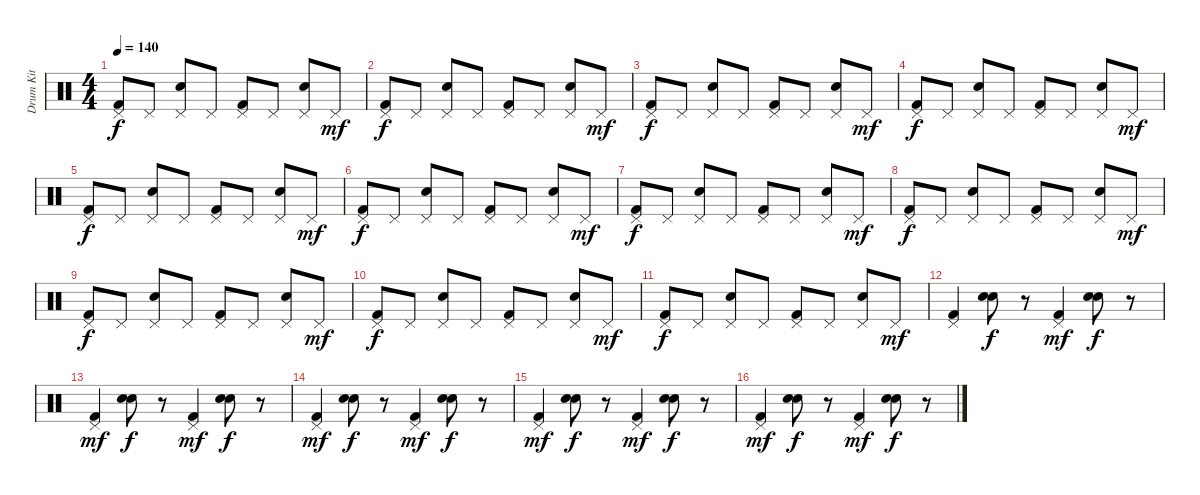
\track ("Drum Kit" "Drum Kit") {instrument percussion}
\staff {score}
\articulation defaults
\ts (4 4)
\tempo 140
\clef neutral
\ks c
("Pedal Hi-Hat (hit)" "Kick (hit) 2").8{dy f} "Pedal Hi-Hat (hit)".8 ("Pedal Hi-Hat (hit)" "Electric Snare (hit)").8 "Pedal Hi-Hat (hit)".8 ("Pedal Hi-Hat (hit)" "Kick (hit) 2").8 "Pedal Hi-Hat (hit)".8 ("Pedal Hi-Hat (hit)" "Electric Snare (hit)").8 "Pedal Hi-Hat (hit)".8{dy mf} |
("Pedal Hi-Hat (hit)" "Kick (hit) 2").8{dy f} "Pedal Hi-Hat (hit)".8 ("Pedal Hi-Hat (hit)" "Electric Snare (hit)").8 "Pedal Hi-Hat (hit)".8 ("Pedal Hi-Hat (hit)" "Kick (hit) 2").8 "Pedal Hi-Hat (hit)".8 ("Pedal Hi-Hat (hit)" "Electric Snare (hit)").8 "Pedal Hi-Hat (hit)".8{dy mf} |
("Pedal Hi-Hat (hit)" "Kick (hit) 2").8{dy f} "Pedal Hi-Hat (hit)".8 ("Pedal Hi-Hat (hit)" "Electric Snare (hit)").8 "Pedal Hi-Hat (hit)".8 ("Pedal Hi-Hat (hit)" "Kick (hit) 2").8 "Pedal Hi-Hat (hit)".8 ("Pedal Hi-Hat (hit)" "Electric Snare (hit)").8 "Pedal Hi-Hat (hit)".8{dy mf} |
("Pedal Hi-Hat (hit)" "Kick (hit) 2").8{dy f} "Pedal Hi-Hat (hit)".8 ("Pedal Hi-Hat (hit)" "Electric Snare (hit)").8 "Pedal Hi-Hat (hit)".8 ("Pedal Hi-Hat (hit)" "Kick (hit) 2").8 "Pedal Hi-Hat (hit)".8 ("Pedal Hi-Hat (hit)" "Electric Snare (hit)").8 "Pedal Hi-Hat (hit)".8{dy mf} |
("Pedal Hi-Hat (hit)" "Kick (hit) 2").8{dy f} "Pedal Hi-Hat (hit)".8 ("Pedal Hi-Hat (hit)" "Electric Snare (hit)").8 "Pedal Hi-Hat (hit)".8 ("Pedal Hi-Hat (hit)" "Kick (hit) 2").8 "Pedal Hi-Hat (hit)".8 ("Pedal Hi-Hat (hit)" "Electric Snare (hit)").8 "Pedal Hi-Hat (hit)".8{dy mf} |
("Pedal Hi-Hat (hit)" "Kick (hit) 2").8{dy f} "Pedal Hi-Hat (hit)".8 ("Pedal Hi-Hat (hit)" "Electric Snare (hit)").8 "Pedal Hi-Hat (hit)".8 ("Pedal Hi-Hat (hit)" "Kick (hit) 2").8 "Pedal Hi-Hat (hit)".8 ("Pedal Hi-Hat (hit)" "Electric Snare (hit)").8 "Pedal Hi-Hat (hit)".8{dy mf} |
("Pedal Hi-Hat (hit)" "Kick (hit) 2").8{dy f} "Pedal Hi-Hat (hit)".8 ("Pedal Hi-Hat (hit)" "Electric Snare (hit)").8 "Pedal Hi-Hat (hit)".8 ("Pedal Hi-Hat (hit)" "Kick (hit) 2").8 "Pedal Hi-Hat (hit)".8 ("Pedal Hi-Hat (hit)" "Electric Snare (hit)").8 "Pedal Hi-Hat (hit)".8{dy mf} |
("Pedal Hi-Hat (hit)" "Kick (hit) 2").8{dy f} "Pedal Hi-Hat (hit)".8 ("Pedal Hi-Hat (hit)" "Electric Snare (hit)").8 "Pedal Hi-Hat (hit)".8 ("Pedal Hi-Hat (hit)" "Kick (hit) 2").8 "Pedal Hi-Hat (hit)".8 ("Pedal Hi-Hat (hit)" "Electric Snare (hit)").8 "Pedal Hi-Hat (hit)".8{dy mf} |
("Pedal Hi-Hat (hit)" "Kick (hit) 2").8{dy f} "Pedal Hi-Hat (hit)".8 ("Pedal Hi-Hat (hit)" "Electric Snare (hit)").8 "Pedal Hi-Hat (hit)".8 ("Pedal Hi-Hat (hit)" "Kick (hit) 2").8 "Pedal Hi-Hat (hit)".8 ("Pedal Hi-Hat (hit)" "Electric Snare (hit)").8 "Pedal Hi-Hat (hit)".8{dy mf} |
("Pedal Hi-Hat (hit)" "Kick (hit) 2").8{dy f} "Pedal Hi-Hat (hit)".8 ("Pedal Hi-Hat (hit)" "Electric Snare (hit)").8 "Pedal Hi-Hat (hit)".8 ("Pedal Hi-Hat (hit)" "Kick (hit) 2").8 "Pedal Hi-Hat (hit)".8 ("Pedal Hi-Hat (hit)" "Electric Snare (hit)").8 "Pedal Hi-Hat (hit)".8{dy mf} |
("Pedal Hi-Hat (hit)" "Kick (hit) 2").8{dy f} "Pedal Hi-Hat (hit)".8 ("Pedal Hi-Hat (hit)" "Electric Snare (hit)").8 "Pedal Hi-Hat (hit)".8 ("Pedal Hi-Hat (hit)" "Kick (hit) 2").8 "Pedal Hi-Hat (hit)".8 ("Pedal Hi-Hat (hit)" "Electric Snare (hit)").8 "Pedal Hi-Hat (hit)".8{dy mf} |
("Pedal Hi-Hat (hit)" "Kick (hit) 2").4 ("Hand Clap (hit)" "Hand Clap (hit)").8{dy f} r.8 ("Pedal Hi-Hat (hit)" "Kick (hit) 2").4{dy mf} ("Hand Clap (hit)" "Hand Clap (hit)").8{dy f} r.8 |
("Pedal Hi-Hat (hit)" "Kick (hit) 2").4{dy mf} ("Hand Clap (hit)" "Hand Clap (hit)").8{dy f} r.8 ("Pedal Hi-Hat (hit)" "Kick (hit) 2").4{dy mf} ("Hand Clap (hit)" "Hand Clap (hit)").8{dy f} r.8 |
("Pedal Hi-Hat (hit)" "Kick (hit) 2").4{dy mf} ("Hand Clap (hit)" "Hand Clap (hit)").8{dy f} r.8 ("Pedal Hi-Hat (hit)" "Kick (hit) 2").4{dy mf} ("Hand Clap (hit)" "Hand Clap (hit)").8{dy f} r.8 |
("Pedal Hi-Hat (hit)" "Kick (hit) 2").4{dy mf} ("Hand Clap (hit)" "Hand Clap (hit)").8{dy f} r.8 ("Pedal Hi-Hat (hit)" "Kick (hit) 2").4{dy mf} ("Hand Clap (hit)" "Hand Clap (hit)").8{dy f} r.8 |
("Pedal Hi-Hat (hit)" "Kick (hit) 2").4{dy mf} ("Hand Clap (hit)" "Hand Clap (hit)").8{dy f} r.8 ("Pedal Hi-Hat (hit)" "Kick (hit) 2").4{dy mf} ("Hand Clap (hit)" "Hand Clap (hit)").8{dy f} r.8
